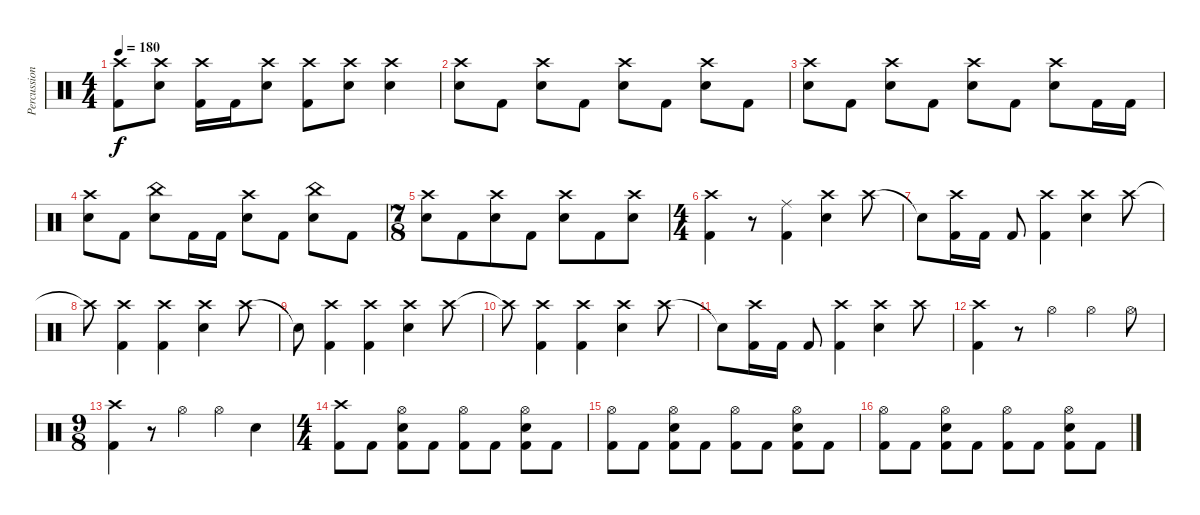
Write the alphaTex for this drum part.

\track ("Percussion" "Percussion") {instrument percussion}
\staff {score}
\articulation defaults
\ts (4 4)
\tempo 180
\clef neutral
\ks c
("Crash high (hit)" "Kick (hit) 2").8{dy f} ("Crash high (hit)" "Snare (hit) 2").8 ("Crash high (hit)" "Kick (hit) 2").16 "Kick (hit) 2".16 ("Crash high (hit)" "Snare (hit) 2").8 ("Crash high (hit)" "Kick (hit) 2").8 ("Crash high (hit)" "Snare (hit) 2").8 ("Crash high (hit)" "Snare (hit) 2").4 |
("Crash high (hit)" "Snare (hit) 2").8 "Kick (hit) 2".8 ("Crash high (hit)" "Snare (hit) 2").8 "Kick (hit) 2".8 ("Crash high (hit)" "Snare (hit) 2").8 "Kick (hit) 2".8 ("Crash high (hit)" "Snare (hit) 2").8 "Kick (hit) 2".8 |
("Crash high (hit)" "Snare (hit) 2").8 "Kick (hit) 2".8 ("Crash high (hit)" "Snare (hit) 2").8 "Kick (hit) 2".8 ("Crash high (hit)" "Snare (hit) 2").8 "Kick (hit) 2".8 ("Crash high (hit)" "Snare (hit) 2").8 "Kick (hit) 2".16 "Kick (hit) 2".16 |
("Crash high (hit)" "Snare (hit) 2").8 "Kick (hit) 2".8 ("China (hit)" "Snare (hit) 2").8 "Kick (hit) 2".16 "Kick (hit) 2".16 ("Crash high (hit)" "Snare (hit) 2").8 "Kick (hit) 2".8 ("China (hit)" "Snare (hit) 2").8 "Kick (hit) 2".8 |
\ts (7 8)
("Crash high (hit)" "Snare (hit) 2").8 "Kick (hit) 2".8 ("Crash high (hit)" "Snare (hit) 2").8 "Kick (hit) 2".8 ("Crash high (hit)" "Snare (hit) 2").8 "Kick (hit) 2".8 ("Crash high (hit)" "Snare (hit) 2").8 |
\ts (4 4)
("Crash high (hit)" "Kick (hit) 2").4 r.8 ("Ride (middle)" "Kick (hit) 2").4 ("Crash high (hit)" "Snare (hit) 2").4 "Crash high (hit)".8 |
"Snare (hit)"{t}.8 ("Crash high (hit)" "Kick (hit) 2").16 "Kick (hit) 2".16 "Kick (hit) 2".8 ("Crash high (hit)" "Kick (hit) 2").4 ("Crash high (hit)" "Snare (hit) 2").4 "Crash high (hit)".8 |
"Crash high (hit)"{t}.8 ("Crash high (hit)" "Kick (hit) 2").4 ("Crash high (hit)" "Kick (hit) 2").4 ("Crash high (hit)" "Snare (hit) 2").4 "Crash high (hit)".8 |
"Snare (hit)"{t}.8 ("Crash high (hit)" "Kick (hit) 2").4 ("Crash high (hit)" "Kick (hit) 2").4 ("Crash high (hit)" "Snare (hit) 2").4 "Crash high (hit)".8 |
"Crash high (hit)"{t}.8 ("Crash high (hit)" "Kick (hit) 2").4 ("Crash high (hit)" "Kick (hit) 2").4 ("Crash high (hit)" "Snare (hit) 2").4 "Crash high (hit)".8 |
"Snare (hit)"{t}.8 ("Crash high (hit)" "Kick (hit) 2").16 "Kick (hit) 2".16 "Kick (hit) 2".8 ("Crash high (hit)" "Kick (hit) 2").4 ("Crash high (hit)" "Snare (hit) 2").4 "Crash high (hit)".8 |
("Crash high (hit)" "Kick (hit) 2").4 r.8 "Hi-Hat (open)".4 "Hi-Hat (open)".4 "Hi-Hat (open)".8 |
\ts (9 8)
("Crash high (hit)" "Kick (hit) 2").4 r.8 "Hi-Hat (open)".4 "Hi-Hat (open)".4 "Snare (hit) 2".4 |
\ts (4 4)
("Crash high (hit)" "Kick (hit) 2").8 "Kick (hit) 2".8 ("Hi-Hat (open)" "Snare (hit) 2" "Kick (hit) 2").8 "Kick (hit) 2".8 ("Hi-Hat (open)" "Kick (hit) 2").8 "Kick (hit) 2".8 ("Hi-Hat (open)" "Snare (hit) 2" "Kick (hit) 2").8 "Kick (hit) 2".8 |
("Hi-Hat (open)" "Kick (hit) 2").8 "Kick (hit) 2".8 ("Hi-Hat (open)" "Snare (hit) 2" "Kick (hit) 2").8 "Kick (hit) 2".8 ("Hi-Hat (open)" "Kick (hit) 2").8 "Kick (hit) 2".8 ("Hi-Hat (open)" "Snare (hit) 2" "Kick (hit) 2").8 "Kick (hit) 2".8 |
("Hi-Hat (open)" "Kick (hit) 2").8 "Kick (hit) 2".8 ("Hi-Hat (open)" "Snare (hit) 2" "Kick (hit) 2").8 "Kick (hit) 2".8 ("Hi-Hat (open)" "Kick (hit) 2").8 "Kick (hit) 2".8 ("Hi-Hat (open)" "Snare (hit) 2" "Kick (hit) 2").8 "Kick (hit) 2".8
